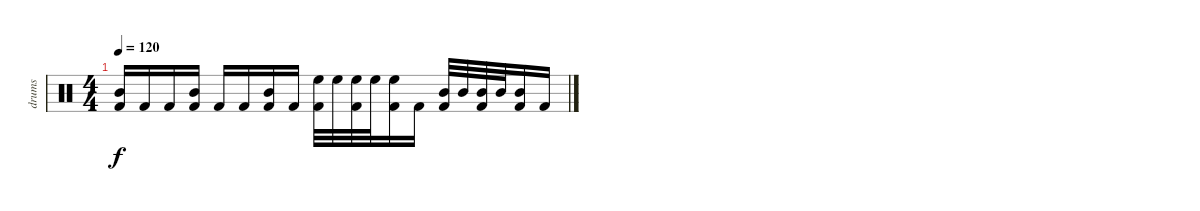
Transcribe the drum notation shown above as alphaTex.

\track ("drums" "drums") {instrument percussion}
\staff {score}
\articulation defaults
\ts (4 4)
\tempo 120
\clef neutral
\ks c
("Mid Tom (hit)" "Kick (hit) 2").16{dy f} "Kick (hit) 2".16 "Kick (hit) 2".16 ("Mid Tom (hit)" "Kick (hit) 2").16 "Kick (hit) 2".16 "Kick (hit) 2".16 ("Mid Tom (hit)" "Kick (hit) 2").16 "Kick (hit) 2".16 ("High Floor Tom (hit)" "Kick (hit) 2").32 "High Floor Tom (hit)".32 ("High Floor Tom (hit)" "Kick (hit) 2").32 "High Floor Tom (hit)".32 ("High Floor Tom (hit)" "Kick (hit) 2").16 "Kick (hit) 2".16 ("Mid Tom (hit)" "Kick (hit) 2").32 "Mid Tom (hit)".32 ("Mid Tom (hit)" "Kick (hit) 2").32 "Mid Tom (hit)".32 ("Mid Tom (hit)" "Kick (hit) 2").16 "Kick (hit) 2".16
